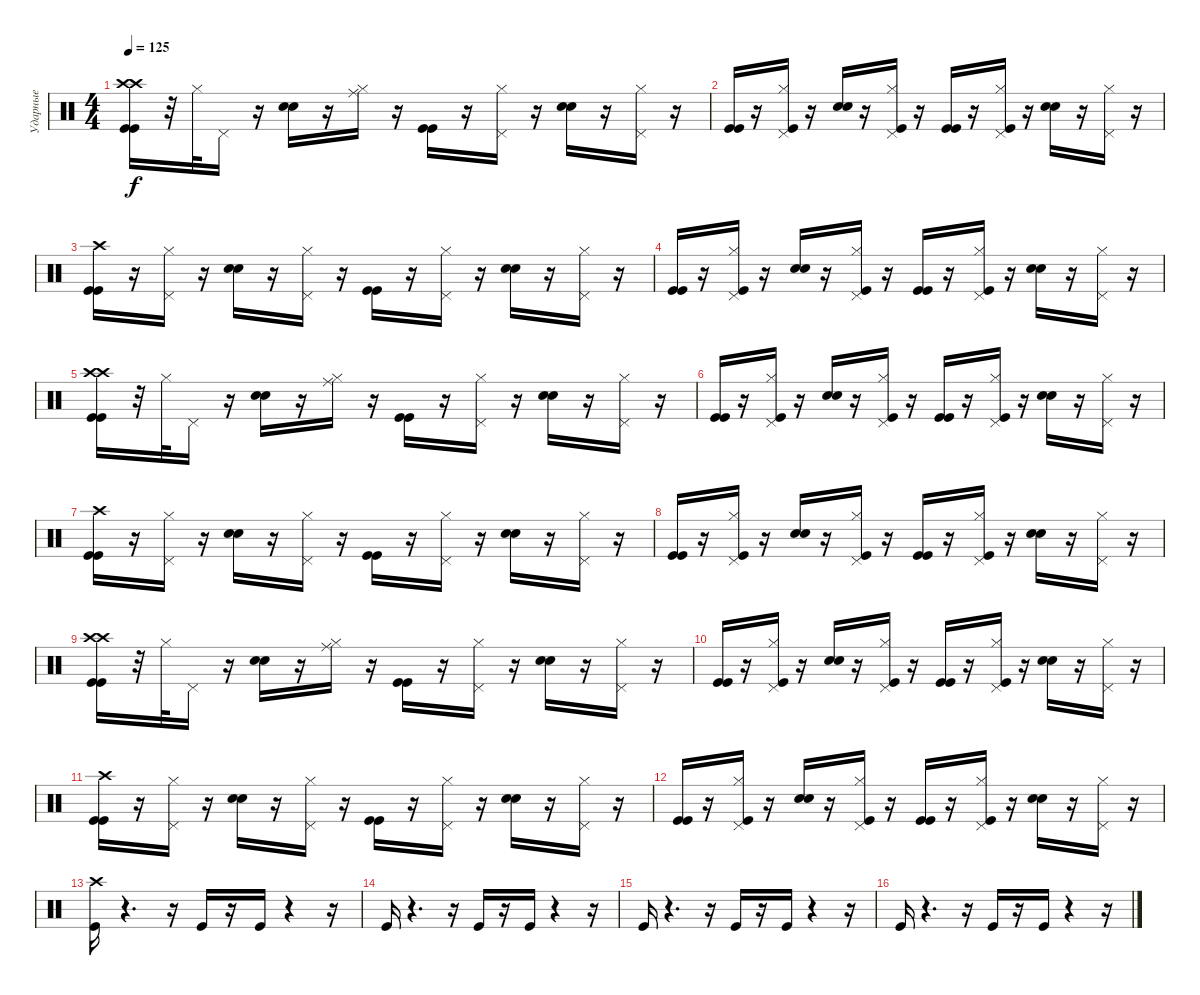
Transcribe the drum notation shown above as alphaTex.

\track ("Ударные" "Ударные") {instrument percussion}
\staff {score}
\articulation defaults
\ts (4 4)
\tempo 125
\clef neutral
\ks c
("Kick (hit)" "Crash high (hit)" "Crash high (hit)" "Kick (hit)").16{dy f} r.32 "Hi-Hat (closed)".32 "Pedal Hi-Hat (hit)".16 r.16 ("Electric Snare (hit)" "Electric Snare (hit)").16 r.16 ("Ride (middle)" "Hi-Hat (closed)").16 r.16 ("Kick (hit)" "Kick (hit)").16 r.16 ("Pedal Hi-Hat (hit)" "Hi-Hat (closed)").16 r.16 ("Electric Snare (hit)" "Electric Snare (hit)").16 r.16 ("Pedal Hi-Hat (hit)" "Hi-Hat (closed)").16 r.16 |
("Kick (hit)" "Kick (hit)").16 r.16 ("Pedal Hi-Hat (hit)" "Hi-Hat (closed)" "Kick (hit)").16 r.16 ("Electric Snare (hit)" "Electric Snare (hit)").16 r.16 ("Pedal Hi-Hat (hit)" "Hi-Hat (closed)" "Kick (hit)").16 r.16 ("Kick (hit)" "Kick (hit)").16 r.16 ("Kick (hit)" "Pedal Hi-Hat (hit)" "Hi-Hat (closed)").16 r.16 ("Electric Snare (hit)" "Electric Snare (hit)").16 r.16 ("Pedal Hi-Hat (hit)" "Hi-Hat (closed)").16 r.16 |
("Kick (hit)" "Crash high (hit)" "Kick (hit)").16 r.16 ("Pedal Hi-Hat (hit)" "Hi-Hat (closed)").16 r.16 ("Electric Snare (hit)" "Electric Snare (hit)").16 r.16 ("Pedal Hi-Hat (hit)" "Hi-Hat (closed)").16 r.16 ("Kick (hit)" "Kick (hit)").16 r.16 ("Pedal Hi-Hat (hit)" "Hi-Hat (closed)").16 r.16 ("Electric Snare (hit)" "Electric Snare (hit)").16 r.16 ("Pedal Hi-Hat (hit)" "Hi-Hat (closed)").16 r.16 |
("Kick (hit)" "Kick (hit)").16 r.16 ("Pedal Hi-Hat (hit)" "Hi-Hat (closed)" "Kick (hit)").16 r.16 ("Electric Snare (hit)" "Electric Snare (hit)").16 r.16 ("Pedal Hi-Hat (hit)" "Hi-Hat (closed)" "Kick (hit)").16 r.16 ("Kick (hit)" "Kick (hit)").16 r.16 ("Kick (hit)" "Pedal Hi-Hat (hit)" "Hi-Hat (closed)").16 r.16 ("Electric Snare (hit)" "Electric Snare (hit)").16 r.16 ("Pedal Hi-Hat (hit)" "Hi-Hat (closed)").16 r.16 |
("Kick (hit)" "Crash high (hit)" "Crash high (hit)" "Kick (hit)").16 r.32 "Hi-Hat (closed)".32 "Pedal Hi-Hat (hit)".16 r.16 ("Electric Snare (hit)" "Electric Snare (hit)").16 r.16 ("Ride (middle)" "Hi-Hat (closed)").16 r.16 ("Kick (hit)" "Kick (hit)").16 r.16 ("Pedal Hi-Hat (hit)" "Hi-Hat (closed)").16 r.16 ("Electric Snare (hit)" "Electric Snare (hit)").16 r.16 ("Pedal Hi-Hat (hit)" "Hi-Hat (closed)").16 r.16 |
("Kick (hit)" "Kick (hit)").16 r.16 ("Pedal Hi-Hat (hit)" "Hi-Hat (closed)" "Kick (hit)").16 r.16 ("Electric Snare (hit)" "Electric Snare (hit)").16 r.16 ("Pedal Hi-Hat (hit)" "Hi-Hat (closed)" "Kick (hit)").16 r.16 ("Kick (hit)" "Kick (hit)").16 r.16 ("Kick (hit)" "Pedal Hi-Hat (hit)" "Hi-Hat (closed)").16 r.16 ("Electric Snare (hit)" "Electric Snare (hit)").16 r.16 ("Pedal Hi-Hat (hit)" "Hi-Hat (closed)").16 r.16 |
("Kick (hit)" "Crash high (hit)" "Kick (hit)").16 r.16 ("Pedal Hi-Hat (hit)" "Hi-Hat (closed)").16 r.16 ("Electric Snare (hit)" "Electric Snare (hit)").16 r.16 ("Pedal Hi-Hat (hit)" "Hi-Hat (closed)").16 r.16 ("Kick (hit)" "Kick (hit)").16 r.16 ("Pedal Hi-Hat (hit)" "Hi-Hat (closed)").16 r.16 ("Electric Snare (hit)" "Electric Snare (hit)").16 r.16 ("Pedal Hi-Hat (hit)" "Hi-Hat (closed)").16 r.16 |
("Kick (hit)" "Kick (hit)").16 r.16 ("Pedal Hi-Hat (hit)" "Hi-Hat (closed)" "Kick (hit)").16 r.16 ("Electric Snare (hit)" "Electric Snare (hit)").16 r.16 ("Pedal Hi-Hat (hit)" "Hi-Hat (closed)" "Kick (hit)").16 r.16 ("Kick (hit)" "Kick (hit)").16 r.16 ("Kick (hit)" "Pedal Hi-Hat (hit)" "Hi-Hat (closed)").16 r.16 ("Electric Snare (hit)" "Electric Snare (hit)").16 r.16 ("Pedal Hi-Hat (hit)" "Hi-Hat (closed)").16 r.16 |
("Kick (hit)" "Crash high (hit)" "Crash high (hit)" "Kick (hit)").16 r.32 "Hi-Hat (closed)".32 "Pedal Hi-Hat (hit)".16 r.16 ("Electric Snare (hit)" "Electric Snare (hit)").16 r.16 ("Ride (middle)" "Hi-Hat (closed)").16 r.16 ("Kick (hit)" "Kick (hit)").16 r.16 ("Pedal Hi-Hat (hit)" "Hi-Hat (closed)").16 r.16 ("Electric Snare (hit)" "Electric Snare (hit)").16 r.16 ("Pedal Hi-Hat (hit)" "Hi-Hat (closed)").16 r.16 |
("Kick (hit)" "Kick (hit)").16 r.16 ("Pedal Hi-Hat (hit)" "Hi-Hat (closed)" "Kick (hit)").16 r.16 ("Electric Snare (hit)" "Electric Snare (hit)").16 r.16 ("Pedal Hi-Hat (hit)" "Hi-Hat (closed)" "Kick (hit)").16 r.16 ("Kick (hit)" "Kick (hit)").16 r.16 ("Kick (hit)" "Pedal Hi-Hat (hit)" "Hi-Hat (closed)").16 r.16 ("Electric Snare (hit)" "Electric Snare (hit)").16 r.16 ("Pedal Hi-Hat (hit)" "Hi-Hat (closed)").16 r.16 |
("Kick (hit)" "Crash high (hit)" "Kick (hit)").16 r.16 ("Pedal Hi-Hat (hit)" "Hi-Hat (closed)").16 r.16 ("Electric Snare (hit)" "Electric Snare (hit)").16 r.16 ("Pedal Hi-Hat (hit)" "Hi-Hat (closed)").16 r.16 ("Kick (hit)" "Kick (hit)").16 r.16 ("Pedal Hi-Hat (hit)" "Hi-Hat (closed)").16 r.16 ("Electric Snare (hit)" "Electric Snare (hit)").16 r.16 ("Pedal Hi-Hat (hit)" "Hi-Hat (closed)").16 r.16 |
("Kick (hit)" "Kick (hit)").16 r.16 ("Pedal Hi-Hat (hit)" "Hi-Hat (closed)" "Kick (hit)").16 r.16 ("Electric Snare (hit)" "Electric Snare (hit)").16 r.16 ("Pedal Hi-Hat (hit)" "Hi-Hat (closed)" "Kick (hit)").16 r.16 ("Kick (hit)" "Kick (hit)").16 r.16 ("Kick (hit)" "Pedal Hi-Hat (hit)" "Hi-Hat (closed)").16 r.16 ("Electric Snare (hit)" "Electric Snare (hit)").16 r.16 ("Pedal Hi-Hat (hit)" "Hi-Hat (closed)").16 r.16 |
("Crash high (hit)" "Kick (hit)").16 r.4{d} r.16 "Kick (hit)".16 r.16 "Kick (hit)".16 r.4 r.16 |
"Kick (hit)".16 r.4{d} r.16 "Kick (hit)".16 r.16 "Kick (hit)".16 r.4 r.16 |
"Kick (hit)".16 r.4{d} r.16 "Kick (hit)".16 r.16 "Kick (hit)".16 r.4 r.16 |
"Kick (hit)".16 r.4{d} r.16 "Kick (hit)".16 r.16 "Kick (hit)".16 r.4 r.16
